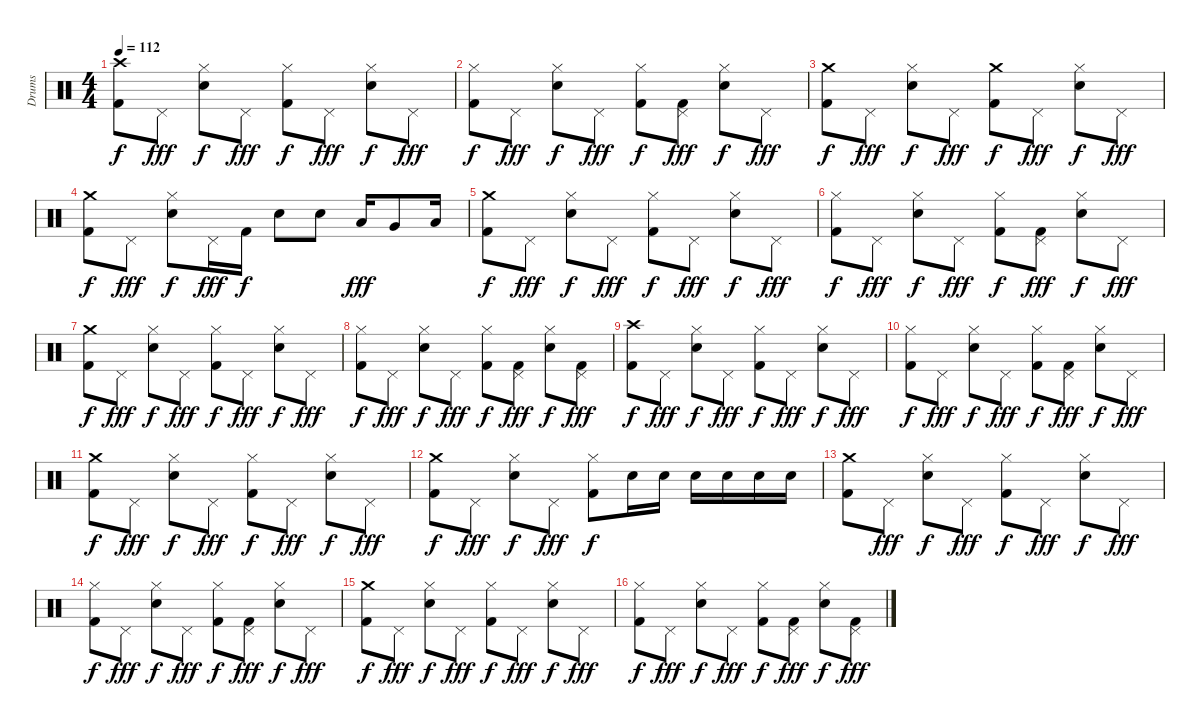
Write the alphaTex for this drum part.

\track ("Drums" "Drums") {instrument percussion}
\staff {score}
\articulation defaults
\ts (4 4)
\tempo 112
\clef neutral
\ks c
("Kick (hit) 2" "Crash high (hit)").8{dy f} "Pedal Hi-Hat (hit)".8{dy fff} ("Hi-Hat (closed)" "Snare (hit) 2").8{dy f} "Pedal Hi-Hat (hit)".8{dy fff} ("Kick (hit) 2" "Hi-Hat (closed)").8{dy f} "Pedal Hi-Hat (hit)".8{dy fff} ("Hi-Hat (closed)" "Snare (hit) 2").8{dy f} "Pedal Hi-Hat (hit)".8{dy fff} |
("Kick (hit) 2" "Hi-Hat (closed)").8{dy f} "Pedal Hi-Hat (hit)".8{dy fff} ("Hi-Hat (closed)" "Snare (hit) 2").8{dy f} "Pedal Hi-Hat (hit)".8{dy fff} ("Kick (hit) 2" "Hi-Hat (closed)").8{dy f} ("Kick (hit) 2" "Pedal Hi-Hat (hit)").8{dy fff} ("Hi-Hat (closed)" "Snare (hit) 2").8{dy f} "Pedal Hi-Hat (hit)".8{dy fff} |
("Kick (hit) 2" "Crash medium (hit)").8{dy f} "Pedal Hi-Hat (hit)".8{dy fff} ("Hi-Hat (closed)" "Snare (hit) 2").8{dy f} "Pedal Hi-Hat (hit)".8{dy fff} ("Kick (hit) 2" "Crash medium (hit)").8{dy f} "Pedal Hi-Hat (hit)".8{dy fff} ("Hi-Hat (closed)" "Snare (hit) 2").8{dy f} "Pedal Hi-Hat (hit)".8{dy fff} |
("Kick (hit) 2" "Crash medium (hit)").8{dy f} "Pedal Hi-Hat (hit)".8{dy fff} ("Hi-Hat (closed)" "Snare (hit) 2").8{dy f} "Pedal Hi-Hat (hit)".16{dy fff} "Kick (hit) 2".16{dy f} "Snare (hit) 2".8 "Snare (hit) 2".8 "Low Tom (hit)".16{dy fff} "Very Low Tom (hit)".8 "Low Floor Tom (hit)".16 |
("Kick (hit) 2" "Crash medium (hit)").8{dy f} "Pedal Hi-Hat (hit)".8{dy fff} ("Hi-Hat (closed)" "Snare (hit) 2").8{dy f} "Pedal Hi-Hat (hit)".8{dy fff} ("Kick (hit) 2" "Hi-Hat (closed)").8{dy f} "Pedal Hi-Hat (hit)".8{dy fff} ("Hi-Hat (closed)" "Snare (hit) 2").8{dy f} "Pedal Hi-Hat (hit)".8{dy fff} |
("Kick (hit) 2" "Hi-Hat (closed)").8{dy f} "Pedal Hi-Hat (hit)".8{dy fff} ("Hi-Hat (closed)" "Snare (hit) 2").8{dy f} "Pedal Hi-Hat (hit)".8{dy fff} ("Kick (hit) 2" "Hi-Hat (closed)").8{dy f} ("Kick (hit) 2" "Pedal Hi-Hat (hit)").8{dy fff} ("Hi-Hat (closed)" "Snare (hit) 2").8{dy f} "Pedal Hi-Hat (hit)".8{dy fff} |
("Kick (hit) 2" "Crash medium (hit)").8{dy f} "Pedal Hi-Hat (hit)".8{dy fff} ("Hi-Hat (closed)" "Snare (hit) 2").8{dy f} "Pedal Hi-Hat (hit)".8{dy fff} ("Kick (hit) 2" "Hi-Hat (closed)").8{dy f} "Pedal Hi-Hat (hit)".8{dy fff} ("Hi-Hat (closed)" "Snare (hit) 2").8{dy f} "Pedal Hi-Hat (hit)".8{dy fff} |
("Kick (hit) 2" "Hi-Hat (closed)").8{dy f} "Pedal Hi-Hat (hit)".8{dy fff} ("Hi-Hat (closed)" "Snare (hit) 2").8{dy f} "Pedal Hi-Hat (hit)".8{dy fff} ("Kick (hit) 2" "Hi-Hat (closed)").8{dy f} ("Kick (hit) 2" "Pedal Hi-Hat (hit)").8{dy fff} ("Hi-Hat (closed)" "Snare (hit) 2").8{dy f} ("Kick (hit) 2" "Pedal Hi-Hat (hit)").8{dy fff} |
("Kick (hit) 2" "Crash high (hit)").8{dy f} "Pedal Hi-Hat (hit)".8{dy fff} ("Hi-Hat (closed)" "Snare (hit) 2").8{dy f} "Pedal Hi-Hat (hit)".8{dy fff} ("Kick (hit) 2" "Hi-Hat (closed)").8{dy f} "Pedal Hi-Hat (hit)".8{dy fff} ("Hi-Hat (closed)" "Snare (hit) 2").8{dy f} "Pedal Hi-Hat (hit)".8{dy fff} |
("Kick (hit) 2" "Hi-Hat (closed)").8{dy f} "Pedal Hi-Hat (hit)".8{dy fff} ("Hi-Hat (closed)" "Snare (hit) 2").8{dy f} "Pedal Hi-Hat (hit)".8{dy fff} ("Kick (hit) 2" "Hi-Hat (closed)").8{dy f} ("Kick (hit) 2" "Pedal Hi-Hat (hit)").8{dy fff} ("Hi-Hat (closed)" "Snare (hit) 2").8{dy f} "Pedal Hi-Hat (hit)".8{dy fff} |
("Kick (hit) 2" "Crash medium (hit)").8{dy f} "Pedal Hi-Hat (hit)".8{dy fff} ("Hi-Hat (closed)" "Snare (hit) 2").8{dy f} "Pedal Hi-Hat (hit)".8{dy fff} ("Kick (hit) 2" "Hi-Hat (closed)").8{dy f} "Pedal Hi-Hat (hit)".8{dy fff} ("Hi-Hat (closed)" "Snare (hit) 2").8{dy f} "Pedal Hi-Hat (hit)".8{dy fff} |
("Kick (hit) 2" "Crash medium (hit)").8{dy f} "Pedal Hi-Hat (hit)".8{dy fff} ("Hi-Hat (closed)" "Snare (hit) 2").8{dy f} "Pedal Hi-Hat (hit)".8{dy fff} ("Kick (hit) 2" "Hi-Hat (closed)").8{dy f} "Snare (hit) 2".16 "Snare (hit) 2".16 "Snare (hit) 2".16 "Snare (hit) 2".16 "Snare (hit) 2".16 "Snare (hit) 2".16 |
("Kick (hit) 2" "Crash medium (hit)").8 "Pedal Hi-Hat (hit)".8{dy fff} ("Hi-Hat (closed)" "Snare (hit) 2").8{dy f} "Pedal Hi-Hat (hit)".8{dy fff} ("Kick (hit) 2" "Hi-Hat (closed)").8{dy f} "Pedal Hi-Hat (hit)".8{dy fff} ("Hi-Hat (closed)" "Snare (hit) 2").8{dy f} "Pedal Hi-Hat (hit)".8{dy fff} |
("Kick (hit) 2" "Hi-Hat (closed)").8{dy f} "Pedal Hi-Hat (hit)".8{dy fff} ("Hi-Hat (closed)" "Snare (hit) 2").8{dy f} "Pedal Hi-Hat (hit)".8{dy fff} ("Kick (hit) 2" "Hi-Hat (closed)").8{dy f} ("Kick (hit) 2" "Pedal Hi-Hat (hit)").8{dy fff} ("Hi-Hat (closed)" "Snare (hit) 2").8{dy f} "Pedal Hi-Hat (hit)".8{dy fff} |
("Kick (hit) 2" "Crash medium (hit)").8{dy f} "Pedal Hi-Hat (hit)".8{dy fff} ("Hi-Hat (closed)" "Snare (hit) 2").8{dy f} "Pedal Hi-Hat (hit)".8{dy fff} ("Kick (hit) 2" "Hi-Hat (closed)").8{dy f} "Pedal Hi-Hat (hit)".8{dy fff} ("Hi-Hat (closed)" "Snare (hit) 2").8{dy f} "Pedal Hi-Hat (hit)".8{dy fff} |
("Kick (hit) 2" "Hi-Hat (closed)").8{dy f} "Pedal Hi-Hat (hit)".8{dy fff} ("Hi-Hat (closed)" "Snare (hit) 2").8{dy f} "Pedal Hi-Hat (hit)".8{dy fff} ("Kick (hit) 2" "Hi-Hat (closed)").8{dy f} ("Kick (hit) 2" "Pedal Hi-Hat (hit)").8{dy fff} ("Hi-Hat (closed)" "Snare (hit) 2").8{dy f} ("Kick (hit) 2" "Pedal Hi-Hat (hit)").8{dy fff}
